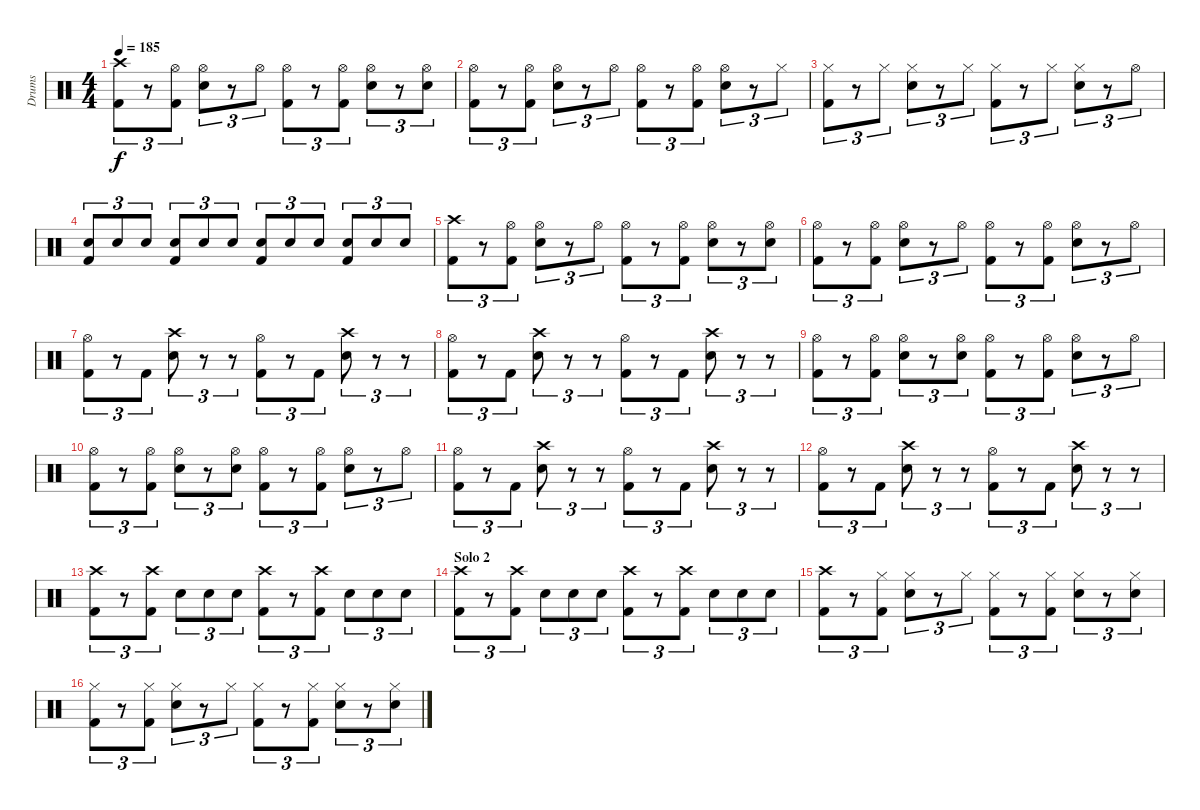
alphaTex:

\track ("Drums" "Drums") {instrument percussion}
\staff {score}
\articulation defaults
\ts (4 4)
\tempo 185
\clef neutral
\ks c
("Crash high (hit)" "Kick (hit) 2").8{tu (3 2) dy f} r.8{tu (3 2)} ("Hi-Hat (open)" "Kick (hit) 2").8{tu (3 2)} ("Hi-Hat (open)" "Electric Snare (hit)").8{tu (3 2)} r.8{tu (3 2)} "Hi-Hat (open)".8{tu (3 2)} ("Hi-Hat (open)" "Kick (hit) 2").8{tu (3 2)} r.8{tu (3 2)} ("Hi-Hat (open)" "Kick (hit) 2").8{tu (3 2)} ("Hi-Hat (open)" "Electric Snare (hit)").8{tu (3 2)} r.8{tu (3 2)} ("Hi-Hat (open)" "Electric Snare (hit)").8{tu (3 2)} |
("Hi-Hat (open)" "Kick (hit) 2").8{tu (3 2)} r.8{tu (3 2)} ("Hi-Hat (open)" "Kick (hit) 2").8{tu (3 2)} ("Hi-Hat (open)" "Electric Snare (hit)").8{tu (3 2)} r.8{tu (3 2)} "Hi-Hat (open)".8{tu (3 2)} ("Hi-Hat (open)" "Kick (hit) 2").8{tu (3 2)} r.8{tu (3 2)} ("Hi-Hat (open)" "Kick (hit) 2").8{tu (3 2)} ("Hi-Hat (open)" "Electric Snare (hit)").8{tu (3 2)} r.8{tu (3 2)} "Hi-Hat (closed)".8{tu (3 2)} |
("Hi-Hat (closed)" "Kick (hit) 2").8{tu (3 2)} r.8{tu (3 2)} "Hi-Hat (closed)".8{tu (3 2)} ("Hi-Hat (closed)" "Electric Snare (hit)").8{tu (3 2)} r.8{tu (3 2)} "Hi-Hat (closed)".8{tu (3 2)} ("Hi-Hat (closed)" "Kick (hit) 2").8{tu (3 2)} r.8{tu (3 2)} "Hi-Hat (closed)".8{tu (3 2)} ("Hi-Hat (closed)" "Electric Snare (hit)").8{tu (3 2)} r.8{tu (3 2)} "Hi-Hat (open)".8{tu (3 2)} |
("Electric Snare (hit)" "Kick (hit) 2").8{tu (3 2)} "Electric Snare (hit)".8{tu (3 2)} "Electric Snare (hit)".8{tu (3 2)} ("Electric Snare (hit)" "Kick (hit) 2").8{tu (3 2)} "Electric Snare (hit)".8{tu (3 2)} "Electric Snare (hit)".8{tu (3 2)} ("Electric Snare (hit)" "Kick (hit) 2").8{tu (3 2)} "Electric Snare (hit)".8{tu (3 2)} "Electric Snare (hit)".8{tu (3 2)} ("Electric Snare (hit)" "Kick (hit) 2").8{tu (3 2)} "Electric Snare (hit)".8{tu (3 2)} "Electric Snare (hit)".8{tu (3 2)} |
("Crash high (hit)" "Kick (hit) 2").8{tu (3 2)} r.8{tu (3 2)} ("Hi-Hat (open)" "Kick (hit) 2").8{tu (3 2)} ("Hi-Hat (open)" "Electric Snare (hit)").8{tu (3 2)} r.8{tu (3 2)} "Hi-Hat (open)".8{tu (3 2)} ("Hi-Hat (open)" "Kick (hit) 2").8{tu (3 2)} r.8{tu (3 2)} ("Hi-Hat (open)" "Kick (hit) 2").8{tu (3 2)} ("Hi-Hat (open)" "Electric Snare (hit)").8{tu (3 2)} r.8{tu (3 2)} ("Hi-Hat (open)" "Electric Snare (hit)").8{tu (3 2)} |
("Hi-Hat (open)" "Kick (hit) 2").8{tu (3 2)} r.8{tu (3 2)} ("Hi-Hat (open)" "Kick (hit) 2").8{tu (3 2)} ("Hi-Hat (open)" "Electric Snare (hit)").8{tu (3 2)} r.8{tu (3 2)} "Hi-Hat (open)".8{tu (3 2)} ("Hi-Hat (open)" "Kick (hit) 2").8{tu (3 2)} r.8{tu (3 2)} ("Hi-Hat (open)" "Kick (hit) 2").8{tu (3 2)} ("Hi-Hat (open)" "Electric Snare (hit)").8{tu (3 2)} r.8{tu (3 2)} "Hi-Hat (open)".8{tu (3 2)} |
("Hi-Hat (open)" "Kick (hit) 2").8{tu (3 2)} r.8{tu (3 2)} "Kick (hit) 2".8{tu (3 2)} ("Crash high (hit)" "Electric Snare (hit)").8{tu (3 2)} r.8{tu (3 2)} r.8{tu (3 2)} ("Hi-Hat (open)" "Kick (hit) 2").8{tu (3 2)} r.8{tu (3 2)} "Kick (hit) 2".8{tu (3 2)} ("Crash high (hit)" "Electric Snare (hit)").8{tu (3 2)} r.8{tu (3 2)} r.8{tu (3 2)} |
("Hi-Hat (open)" "Kick (hit) 2").8{tu (3 2)} r.8{tu (3 2)} "Kick (hit) 2".8{tu (3 2)} ("Crash high (hit)" "Electric Snare (hit)").8{tu (3 2)} r.8{tu (3 2)} r.8{tu (3 2)} ("Hi-Hat (open)" "Kick (hit) 2").8{tu (3 2)} r.8{tu (3 2)} "Kick (hit) 2".8{tu (3 2)} ("Crash high (hit)" "Electric Snare (hit)").8{tu (3 2)} r.8{tu (3 2)} r.8{tu (3 2)} |
("Hi-Hat (open)" "Kick (hit) 2").8{tu (3 2)} r.8{tu (3 2)} ("Hi-Hat (open)" "Kick (hit) 2").8{tu (3 2)} ("Hi-Hat (open)" "Electric Snare (hit)").8{tu (3 2)} r.8{tu (3 2)} ("Hi-Hat (open)" "Electric Snare (hit)").8{tu (3 2)} ("Hi-Hat (open)" "Kick (hit) 2").8{tu (3 2)} r.8{tu (3 2)} ("Hi-Hat (open)" "Kick (hit) 2").8{tu (3 2)} ("Hi-Hat (open)" "Electric Snare (hit)").8{tu (3 2)} r.8{tu (3 2)} "Hi-Hat (open)".8{tu (3 2)} |
("Hi-Hat (open)" "Kick (hit) 2").8{tu (3 2)} r.8{tu (3 2)} ("Hi-Hat (open)" "Kick (hit) 2").8{tu (3 2)} ("Hi-Hat (open)" "Electric Snare (hit)").8{tu (3 2)} r.8{tu (3 2)} ("Hi-Hat (open)" "Electric Snare (hit)").8{tu (3 2)} ("Hi-Hat (open)" "Kick (hit) 2").8{tu (3 2)} r.8{tu (3 2)} ("Hi-Hat (open)" "Kick (hit) 2").8{tu (3 2)} ("Hi-Hat (open)" "Electric Snare (hit)").8{tu (3 2)} r.8{tu (3 2)} "Hi-Hat (open)".8{tu (3 2)} |
("Hi-Hat (open)" "Kick (hit) 2").8{tu (3 2)} r.8{tu (3 2)} "Kick (hit) 2".8{tu (3 2)} ("Crash high (hit)" "Electric Snare (hit)").8{tu (3 2)} r.8{tu (3 2)} r.8{tu (3 2)} ("Hi-Hat (open)" "Kick (hit) 2").8{tu (3 2)} r.8{tu (3 2)} "Kick (hit) 2".8{tu (3 2)} ("Crash high (hit)" "Electric Snare (hit)").8{tu (3 2)} r.8{tu (3 2)} r.8{tu (3 2)} |
("Hi-Hat (open)" "Kick (hit) 2").8{tu (3 2)} r.8{tu (3 2)} "Kick (hit) 2".8{tu (3 2)} ("Crash high (hit)" "Electric Snare (hit)").8{tu (3 2)} r.8{tu (3 2)} r.8{tu (3 2)} ("Hi-Hat (open)" "Kick (hit) 2").8{tu (3 2)} r.8{tu (3 2)} "Kick (hit) 2".8{tu (3 2)} ("Crash high (hit)" "Electric Snare (hit)").8{tu (3 2)} r.8{tu (3 2)} r.8{tu (3 2)} |
("Crash high (hit)" "Kick (hit) 2").8{tu (3 2)} r.8{tu (3 2)} ("Crash high (hit)" "Kick (hit) 2").8{tu (3 2)} "Electric Snare (hit)".8{tu (3 2)} "Electric Snare (hit)".8{tu (3 2)} "Electric Snare (hit)".8{tu (3 2)} ("Crash high (hit)" "Kick (hit) 2").8{tu (3 2)} r.8{tu (3 2)} ("Crash high (hit)" "Kick (hit) 2").8{tu (3 2)} "Electric Snare (hit)".8{tu (3 2)} "Electric Snare (hit)".8{tu (3 2)} "Electric Snare (hit)".8{tu (3 2)} |
\section ("" "Solo 2")
("Crash high (hit)" "Kick (hit) 2").8{tu (3 2)} r.8{tu (3 2)} ("Crash high (hit)" "Kick (hit) 2").8{tu (3 2)} "Electric Snare (hit)".8{tu (3 2)} "Electric Snare (hit)".8{tu (3 2)} "Electric Snare (hit)".8{tu (3 2)} ("Crash high (hit)" "Kick (hit) 2").8{tu (3 2)} r.8{tu (3 2)} ("Crash high (hit)" "Kick (hit) 2").8{tu (3 2)} "Electric Snare (hit)".8{tu (3 2)} "Electric Snare (hit)".8{tu (3 2)} "Electric Snare (hit)".8{tu (3 2)} |
("Crash high (hit)" "Kick (hit) 2").8{tu (3 2)} r.8{tu (3 2)} ("Hi-Hat (closed)" "Kick (hit) 2").8{tu (3 2)} ("Hi-Hat (closed)" "Electric Snare (hit)").8{tu (3 2)} r.8{tu (3 2)} "Hi-Hat (closed)".8{tu (3 2)} ("Hi-Hat (closed)" "Kick (hit) 2").8{tu (3 2)} r.8{tu (3 2)} ("Hi-Hat (closed)" "Kick (hit) 2").8{tu (3 2)} ("Hi-Hat (closed)" "Electric Snare (hit)").8{tu (3 2)} r.8{tu (3 2)} ("Hi-Hat (closed)" "Electric Snare (hit)").8{tu (3 2)} |
("Hi-Hat (closed)" "Kick (hit) 2").8{tu (3 2)} r.8{tu (3 2)} ("Hi-Hat (closed)" "Kick (hit) 2").8{tu (3 2)} ("Hi-Hat (closed)" "Electric Snare (hit)").8{tu (3 2)} r.8{tu (3 2)} "Hi-Hat (closed)".8{tu (3 2)} ("Hi-Hat (closed)" "Kick (hit) 2").8{tu (3 2)} r.8{tu (3 2)} ("Hi-Hat (closed)" "Kick (hit) 2").8{tu (3 2)} ("Hi-Hat (closed)" "Electric Snare (hit)").8{tu (3 2)} r.8{tu (3 2)} ("Hi-Hat (closed)" "Electric Snare (hit)").8{tu (3 2)}
